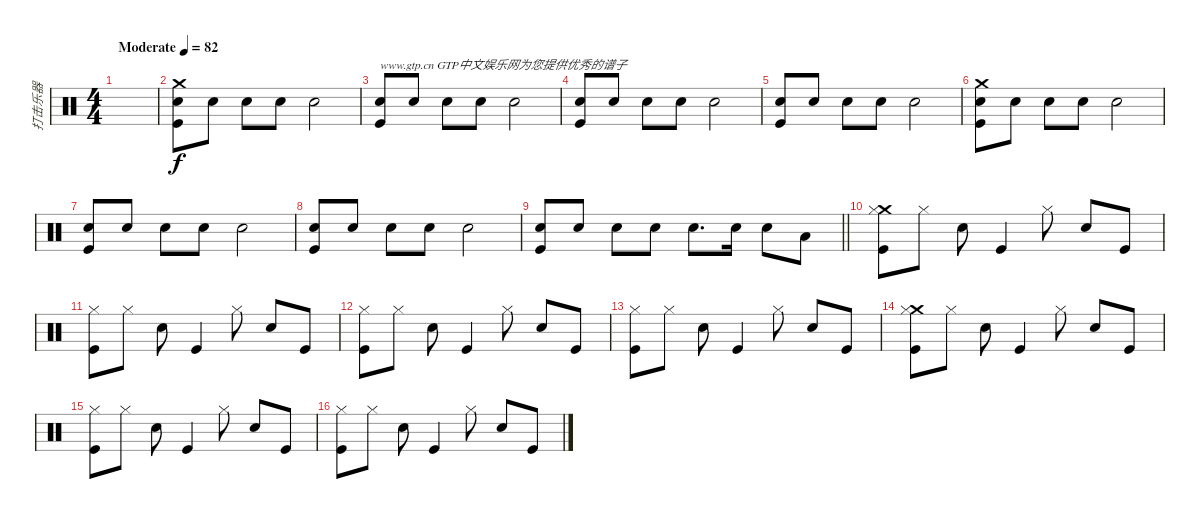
\track ("打击乐器" "打击乐器") {instrument percussion}
\staff {score}
\articulation defaults
\ts (4 4)
\tempo (82 "Moderate")
\clef neutral
\ks c
|
("Crash medium (hit)" "Electric Snare (hit)" "Kick (hit)").8 "Electric Snare (hit)".8 "Electric Snare (hit)".8 "Electric Snare (hit)".8 "Electric Snare (hit)".2 |
("Electric Snare (hit)" "Kick (hit)").8{txt "www.gtp.cn GTP中文娱乐网为您提供优秀的谱子"} "Electric Snare (hit)".8 "Electric Snare (hit)".8 "Electric Snare (hit)".8 "Electric Snare (hit)".2 |
("Electric Snare (hit)" "Kick (hit)").8 "Electric Snare (hit)".8 "Electric Snare (hit)".8 "Electric Snare (hit)".8 "Electric Snare (hit)".2 |
("Electric Snare (hit)" "Kick (hit)").8 "Electric Snare (hit)".8 "Electric Snare (hit)".8 "Electric Snare (hit)".8 "Electric Snare (hit)".2 |
("Crash medium (hit)" "Electric Snare (hit)" "Kick (hit)").8 "Electric Snare (hit)".8 "Electric Snare (hit)".8 "Electric Snare (hit)".8 "Electric Snare (hit)".2 |
("Electric Snare (hit)" "Kick (hit)").8 "Electric Snare (hit)".8 "Electric Snare (hit)".8 "Electric Snare (hit)".8 "Electric Snare (hit)".2 |
("Electric Snare (hit)" "Kick (hit)").8 "Electric Snare (hit)".8 "Electric Snare (hit)".8 "Electric Snare (hit)".8 "Electric Snare (hit)".2 |
\barLineRight lightlight
("Electric Snare (hit)" "Kick (hit)").8 "Electric Snare (hit)".8 "Electric Snare (hit)".8 "Electric Snare (hit)".8 "Electric Snare (hit)".8{d} "Electric Snare (hit)".16 "Electric Snare (hit)".8 "Low Tom (hit)".8 |
\section ("" "")
("Crash medium (hit)" "Hi-Hat (closed)" "Kick (hit)").8 "Hi-Hat (closed)".8 "Electric Snare (hit)".8 "Kick (hit)".4 "Hi-Hat (closed)".8 "Electric Snare (hit)".8 "Kick (hit)".8 |
("Hi-Hat (closed)" "Kick (hit)").8 "Hi-Hat (closed)".8 "Electric Snare (hit)".8 "Kick (hit)".4 "Hi-Hat (closed)".8 "Electric Snare (hit)".8 "Kick (hit)".8 |
("Hi-Hat (closed)" "Kick (hit)").8 "Hi-Hat (closed)".8 "Electric Snare (hit)".8 "Kick (hit)".4 "Hi-Hat (closed)".8 "Electric Snare (hit)".8 "Kick (hit)".8 |
("Hi-Hat (closed)" "Kick (hit)").8 "Hi-Hat (closed)".8 "Electric Snare (hit)".8 "Kick (hit)".4 "Hi-Hat (closed)".8 "Electric Snare (hit)".8 "Kick (hit)".8 |
("Crash medium (hit)" "Hi-Hat (closed)" "Kick (hit)").8 "Hi-Hat (closed)".8 "Electric Snare (hit)".8 "Kick (hit)".4 "Hi-Hat (closed)".8 "Electric Snare (hit)".8 "Kick (hit)".8 |
("Hi-Hat (closed)" "Kick (hit)").8 "Hi-Hat (closed)".8 "Electric Snare (hit)".8 "Kick (hit)".4 "Hi-Hat (closed)".8 "Electric Snare (hit)".8 "Kick (hit)".8 |
("Hi-Hat (closed)" "Kick (hit)").8 "Hi-Hat (closed)".8 "Electric Snare (hit)".8 "Kick (hit)".4 "Hi-Hat (closed)".8 "Electric Snare (hit)".8 "Kick (hit)".8
